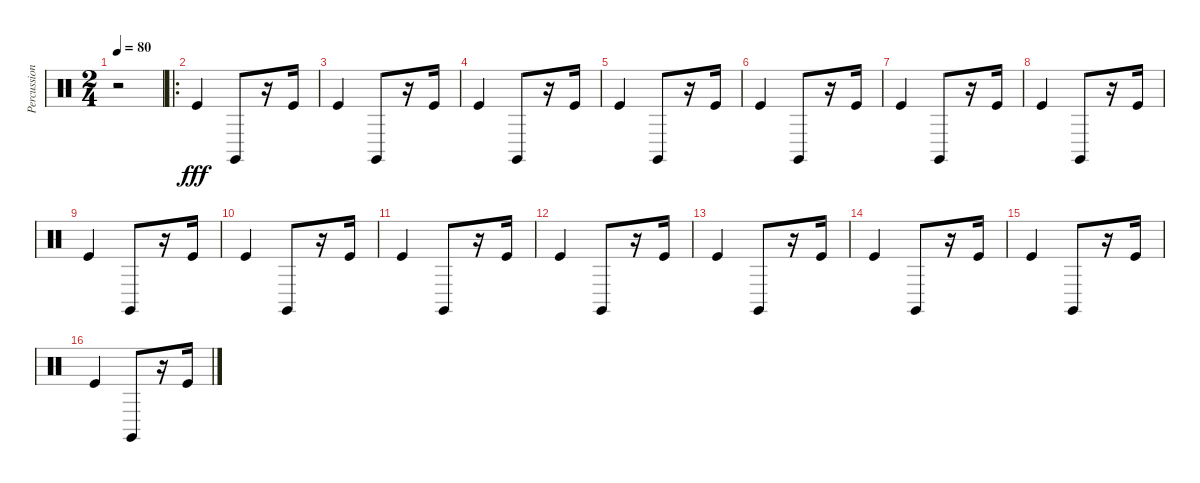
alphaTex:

\track ("Percussions" "Percussion") {instrument percussion}
\staff {score}
\articulation defaults
\ts (2 4)
\tempo 80
\clef neutral
\ks c
r.2{dy fff} |
\ro "Kick (hit)".4 "Claves (hit)".8
r.16 "Kick (hit)".16 |
"Kick (hit)".4 "Claves (hit)".8 r.16 "Kick (hit)".16 |
"Kick (hit)".4 "Claves (hit)".8 r.16 "Kick (hit)".16 |
"Kick (hit)".4 "Claves (hit)".8 r.16 "Kick (hit)".16 |
"Kick (hit)".4 "Claves (hit)".8 r.16 "Kick (hit)".16 |
"Kick (hit)".4 "Claves (hit)".8 r.16 "Kick (hit)".16 |
"Kick (hit)".4 "Claves (hit)".8 r.16 "Kick (hit)".16 |
"Kick (hit)".4 "Claves (hit)".8 r.16 "Kick (hit)".16 |
"Kick (hit)".4 "Claves (hit)".8 r.16 "Kick (hit)".16 |
"Kick (hit)".4 "Claves (hit)".8 r.16 "Kick (hit)".16 |
"Kick (hit)".4 "Claves (hit)".8 r.16 "Kick (hit)".16 |
"Kick (hit)".4 "Claves (hit)".8 r.16 "Kick (hit)".16 |
"Kick (hit)".4 "Claves (hit)".8 r.16 "Kick (hit)".16 |
"Kick (hit)".4 "Claves (hit)".8 r.16 "Kick (hit)".16 |
"Kick (hit)".4 "Claves (hit)".8 r.16 "Kick (hit)".16
